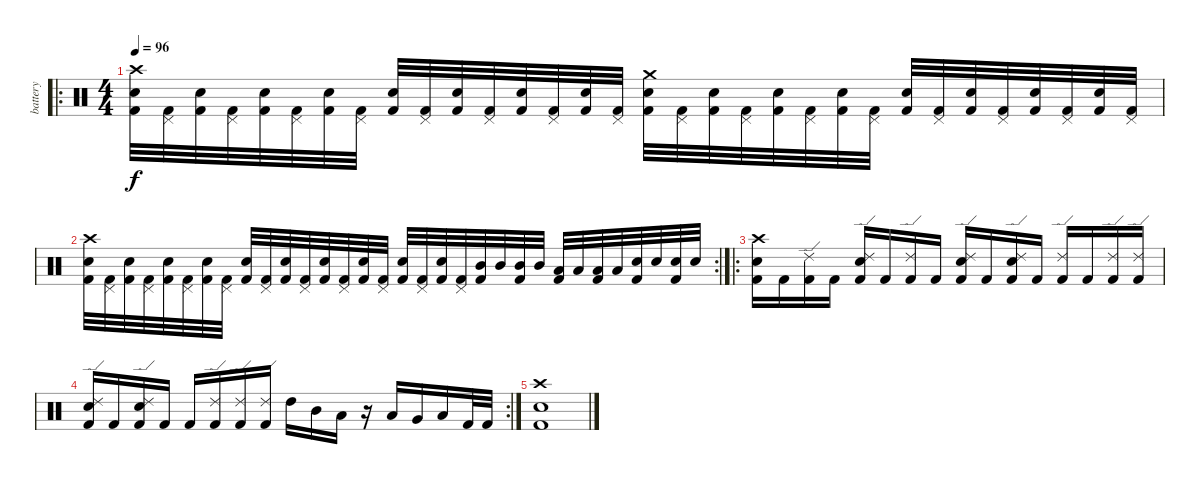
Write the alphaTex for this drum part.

\track ("battery" "battery") {instrument percussion}
\staff {score}
\articulation defaults
\ro
\ts (4 4)
\tempo 96
\clef neutral
\ks c
("Crash high (hit)" "Snare (hit) 2" "Kick (hit) 2").32{dy f} ("Pedal Hi-Hat (hit)" "Kick (hit) 2").32 ("Snare (hit) 2" "Kick (hit) 2").32 ("Pedal Hi-Hat (hit)" "Kick (hit) 2").32 ("Snare (hit) 2" "Kick (hit) 2").32 ("Pedal Hi-Hat (hit)" "Kick (hit) 2").32 ("Snare (hit) 2" "Kick (hit) 2").32 ("Pedal Hi-Hat (hit)" "Kick (hit) 2").32 ("Snare (hit) 2" "Kick (hit) 2").32 ("Pedal Hi-Hat (hit)" "Kick (hit) 2").32 ("Snare (hit) 2" "Kick (hit) 2").32 ("Pedal Hi-Hat (hit)" "Kick (hit) 2").32 ("Snare (hit) 2" "Kick (hit) 2").32 ("Pedal Hi-Hat (hit)" "Kick (hit) 2").32 ("Snare (hit) 2" "Kick (hit) 2").32 ("Pedal Hi-Hat (hit)" "Kick (hit) 2").32 ("Crash medium (hit)" "Snare (hit) 2" "Kick (hit) 2").32 ("Pedal Hi-Hat (hit)" "Kick (hit) 2").32 ("Snare (hit) 2" "Kick (hit) 2").32 ("Pedal Hi-Hat (hit)" "Kick (hit) 2").32 ("Snare (hit) 2" "Kick (hit) 2").32 ("Pedal Hi-Hat (hit)" "Kick (hit) 2").32 ("Snare (hit) 2" "Kick (hit) 2").32 ("Pedal Hi-Hat (hit)" "Kick (hit) 2").32 ("Snare (hit) 2" "Kick (hit) 2").32 ("Pedal Hi-Hat (hit)" "Kick (hit) 2").32 ("Snare (hit) 2" "Kick (hit) 2").32 ("Pedal Hi-Hat (hit)" "Kick (hit) 2").32 ("Snare (hit) 2" "Kick (hit) 2").32 ("Pedal Hi-Hat (hit)" "Kick (hit) 2").32 ("Snare (hit) 2" "Kick (hit) 2").32 ("Pedal Hi-Hat (hit)" "Kick (hit) 2").32 |
\rc 2
("Crash high (hit)" "Snare (hit) 2" "Kick (hit) 2").32 ("Pedal Hi-Hat (hit)" "Kick (hit) 2").32 ("Snare (hit) 2" "Kick (hit) 2").32 ("Pedal Hi-Hat (hit)" "Kick (hit) 2").32 ("Snare (hit) 2" "Kick (hit) 2").32 ("Pedal Hi-Hat (hit)" "Kick (hit) 2").32 ("Snare (hit) 2" "Kick (hit) 2").32 ("Pedal Hi-Hat (hit)" "Kick (hit) 2").32 ("Snare (hit) 2" "Kick (hit) 2").32 ("Pedal Hi-Hat (hit)" "Kick (hit) 2").32 ("Snare (hit) 2" "Kick (hit) 2").32 ("Pedal Hi-Hat (hit)" "Kick (hit) 2").32 ("Snare (hit) 2" "Kick (hit) 2").32 ("Pedal Hi-Hat (hit)" "Kick (hit) 2").32 ("Snare (hit) 2" "Kick (hit) 2").32 ("Pedal Hi-Hat (hit)" "Kick (hit) 2").32 ("Snare (hit) 2" "Kick (hit) 2").32 ("Pedal Hi-Hat (hit)" "Kick (hit) 2").32 ("Snare (hit) 2" "Kick (hit) 2").32 ("Pedal Hi-Hat (hit)" "Kick (hit) 2").32 ("Mid Tom (hit)" "Kick (hit) 2").32 "Mid Tom (hit)".32 ("Mid Tom (hit)" "Kick (hit) 2").32 "Mid Tom (hit)".32 ("Low Tom (hit)" "Kick (hit) 2").32 "Low Tom (hit)".32 ("Low Tom (hit)" "Kick (hit) 2").32 "Low Tom (hit)".32 ("Snare (hit) 2" "Kick (hit) 2").32 "Snare (hit) 2".32 ("Snare (hit) 2" "Kick (hit) 2").32 "Snare (hit) 2".32 |
\ro
("Crash high (hit)" "Snare (hit) 2" "Kick (hit) 2").16 "Kick (hit) 2".16 ("Ride (edge) 2" "Kick (hit) 2").16 "Kick (hit) 2".16 ("Ride (edge) 2" "Snare (hit) 2" "Kick (hit) 2").16 "Kick (hit) 2".16 ("Ride (edge) 2" "Kick (hit) 2").16 "Kick (hit) 2".16 ("Ride (edge) 2" "Snare (hit) 2" "Kick (hit) 2").16 "Kick (hit) 2".16 ("Ride (edge) 2" "Snare (hit) 2" "Kick (hit) 2").16 "Kick (hit) 2".16 ("Ride (edge) 2" "Kick (hit) 2").16 "Kick (hit) 2".16 ("Ride (edge) 2" "Kick (hit) 2").16 ("Ride (edge) 2" "Kick (hit) 2").16 |
\rc 2
("Ride (edge) 2" "Snare (hit) 2" "Kick (hit) 2").16 "Kick (hit) 2".16 ("Ride (edge) 2" "Snare (hit) 2" "Kick (hit) 2").16 "Kick (hit) 2".16 "Kick (hit) 2".16 ("Ride (edge) 2" "Kick (hit) 2").16 ("Ride (edge) 2" "Kick (hit) 2").16 ("Ride (edge) 2" "Kick (hit) 2").16 "High Tom (hit)".16 "Mid Tom (hit)".16 "Low Tom (hit)".16 r.16 "Low Tom (hit)".16 "Very Low Tom (hit)".16 "Low Floor Tom (hit)".16 "Kick (hit) 2".32 "Kick (hit) 2".32 |
("Snare (hit) 2" "Crash high (hit)" "Kick (hit) 2").1
